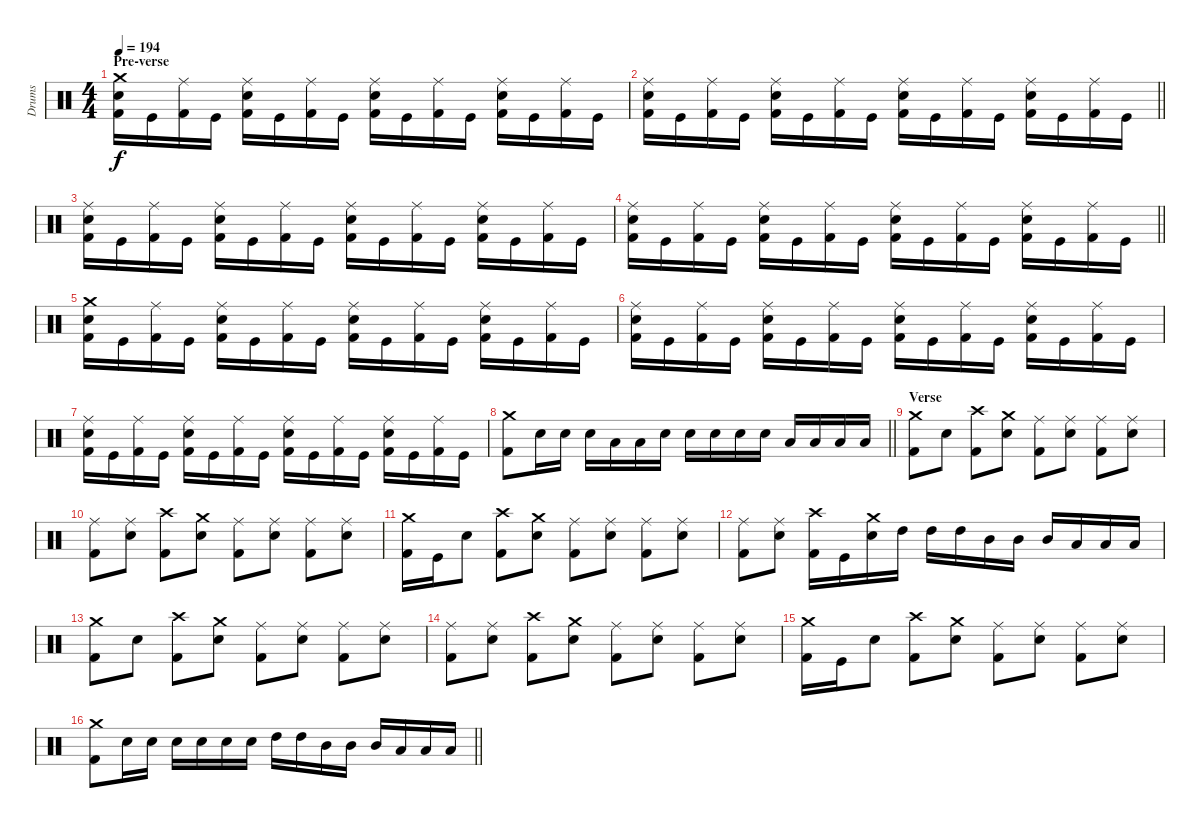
\track ("Drums" "Drums") {instrument percussion}
\staff {score}
\articulation defaults
\ts (4 4)
\section ("" "Pre-verse")
\tempo 194
\clef neutral
\ks c
("Crash medium (hit)" "Snare (hit) 2" "Kick (hit) 2").16{dy f} "Kick (hit)".16 ("Ride (middle)" "Kick (hit) 2").16 "Kick (hit)".16 ("Ride (middle)" "Snare (hit) 2" "Kick (hit) 2").16 "Kick (hit)".16 ("Ride (middle)" "Kick (hit) 2").16 "Kick (hit)".16 ("Ride (middle)" "Snare (hit) 2" "Kick (hit) 2").16 "Kick (hit)".16 ("Ride (middle)" "Kick (hit) 2").16 "Kick (hit)".16 ("Ride (middle)" "Snare (hit) 2" "Kick (hit) 2").16 "Kick (hit)".16 ("Ride (middle)" "Kick (hit) 2").16 "Kick (hit)".16 |
\barLineRight lightlight
("Ride (middle)" "Snare (hit) 2" "Kick (hit) 2").16 "Kick (hit)".16 ("Ride (middle)" "Kick (hit) 2").16 "Kick (hit)".16 ("Ride (middle)" "Snare (hit) 2" "Kick (hit) 2").16 "Kick (hit)".16 ("Ride (middle)" "Kick (hit) 2").16 "Kick (hit)".16 ("Ride (middle)" "Snare (hit) 2" "Kick (hit) 2").16 "Kick (hit)".16 ("Ride (middle)" "Kick (hit) 2").16 "Kick (hit)".16 ("Ride (middle)" "Snare (hit) 2" "Kick (hit) 2").16 "Kick (hit)".16 ("Ride (middle)" "Kick (hit) 2").16 "Kick (hit)".16 |
("Ride (middle)" "Snare (hit) 2" "Kick (hit) 2").16 "Kick (hit)".16 ("Ride (middle)" "Kick (hit) 2").16 "Kick (hit)".16 ("Ride (middle)" "Snare (hit) 2" "Kick (hit) 2").16 "Kick (hit)".16 ("Ride (middle)" "Kick (hit) 2").16 "Kick (hit)".16 ("Ride (middle)" "Snare (hit) 2" "Kick (hit) 2").16 "Kick (hit)".16 ("Ride (middle)" "Kick (hit) 2").16 "Kick (hit)".16 ("Ride (middle)" "Snare (hit) 2" "Kick (hit) 2").16 "Kick (hit)".16 ("Ride (middle)" "Kick (hit) 2").16 "Kick (hit)".16 |
\barLineRight lightlight
("Ride (middle)" "Snare (hit) 2" "Kick (hit) 2").16 "Kick (hit)".16 ("Ride (middle)" "Kick (hit) 2").16 "Kick (hit)".16 ("Ride (middle)" "Snare (hit) 2" "Kick (hit) 2").16 "Kick (hit)".16 ("Ride (middle)" "Kick (hit) 2").16 "Kick (hit)".16 ("Ride (middle)" "Snare (hit) 2" "Kick (hit) 2").16 "Kick (hit)".16 ("Ride (middle)" "Kick (hit) 2").16 "Kick (hit)".16 ("Ride (middle)" "Snare (hit) 2" "Kick (hit) 2").16 "Kick (hit)".16 ("Ride (middle)" "Kick (hit) 2").16 "Kick (hit)".16 |
("Crash medium (hit)" "Snare (hit) 2" "Kick (hit) 2").16 "Kick (hit)".16 ("Ride (middle)" "Kick (hit) 2").16 "Kick (hit)".16 ("Ride (middle)" "Snare (hit) 2" "Kick (hit) 2").16 "Kick (hit)".16 ("Ride (middle)" "Kick (hit) 2").16 "Kick (hit)".16 ("Ride (middle)" "Snare (hit) 2" "Kick (hit) 2").16 "Kick (hit)".16 ("Ride (middle)" "Kick (hit) 2").16 "Kick (hit)".16 ("Ride (middle)" "Snare (hit) 2" "Kick (hit) 2").16 "Kick (hit)".16 ("Ride (middle)" "Kick (hit) 2").16 "Kick (hit)".16 |
("Ride (middle)" "Snare (hit) 2" "Kick (hit) 2").16 "Kick (hit)".16 ("Ride (middle)" "Kick (hit) 2").16 "Kick (hit)".16 ("Ride (middle)" "Snare (hit) 2" "Kick (hit) 2").16 "Kick (hit)".16 ("Ride (middle)" "Kick (hit) 2").16 "Kick (hit)".16 ("Ride (middle)" "Snare (hit) 2" "Kick (hit) 2").16 "Kick (hit)".16 ("Ride (middle)" "Kick (hit) 2").16 "Kick (hit)".16 ("Ride (middle)" "Snare (hit) 2" "Kick (hit) 2").16 "Kick (hit)".16 ("Ride (middle)" "Kick (hit) 2").16 "Kick (hit)".16 |
("Ride (middle)" "Snare (hit) 2" "Kick (hit) 2").16 "Kick (hit)".16 ("Ride (middle)" "Kick (hit) 2").16 "Kick (hit)".16 ("Ride (middle)" "Snare (hit) 2" "Kick (hit) 2").16 "Kick (hit)".16 ("Ride (middle)" "Kick (hit) 2").16 "Kick (hit)".16 ("Ride (middle)" "Snare (hit) 2" "Kick (hit) 2").16 "Kick (hit)".16 ("Ride (middle)" "Kick (hit) 2").16 "Kick (hit)".16 ("Ride (middle)" "Snare (hit) 2" "Kick (hit) 2").16 "Kick (hit)".16 ("Ride (middle)" "Kick (hit) 2").16 "Kick (hit)".16 |
\barLineRight lightlight
("Crash medium (hit)" "Kick (hit) 2").8 "Snare (hit) 2".16 "Snare (hit) 2".16 "Snare (hit) 2".16 "Low Tom (hit)".16 "Low Tom (hit)".16 "Snare (hit) 2".16 "Snare (hit) 2".16 "Snare (hit) 2".16 "Snare (hit) 2".16 "Snare (hit) 2".16 "Low Tom (hit)".16 "Low Tom (hit)".16 "Low Tom (hit)".16 "Low Tom (hit)".16 |
\section ("" "Verse")
("Crash medium (hit)" "Kick (hit) 2").8 "Snare (hit) 2".8 ("Crash high (hit)" "Kick (hit) 2").8 ("Crash medium (hit)" "Snare (hit) 2").8 ("Ride (middle)" "Kick (hit) 2").8 ("Ride (middle)" "Snare (hit) 2").8 ("Ride (middle)" "Kick (hit) 2").8 ("Ride (middle)" "Snare (hit) 2").8 |
("Ride (middle)" "Kick (hit) 2").8 ("Ride (middle)" "Snare (hit) 2").8 ("Crash high (hit)" "Kick (hit) 2").8 ("Crash medium (hit)" "Snare (hit) 2").8 ("Ride (middle)" "Kick (hit) 2").8 ("Ride (middle)" "Snare (hit) 2").8 ("Ride (middle)" "Kick (hit) 2").8 ("Ride (middle)" "Snare (hit) 2").8 |
("Crash medium (hit)" "Kick (hit) 2").16 "Kick (hit)".16 "Snare (hit) 2".8 ("Crash high (hit)" "Kick (hit) 2").8 ("Crash medium (hit)" "Snare (hit) 2").8 ("Ride (middle)" "Kick (hit) 2").8 ("Ride (middle)" "Snare (hit) 2").8 ("Ride (middle)" "Kick (hit) 2").8 ("Ride (middle)" "Snare (hit) 2").8 |
("Ride (middle)" "Kick (hit) 2").8 ("Ride (middle)" "Snare (hit) 2").8 ("Crash high (hit)" "Kick (hit) 2").16 "Kick (hit)".16 ("Crash medium (hit)" "Snare (hit) 2").16 "High Tom (hit)".16 "High Tom (hit)".16 "High Tom (hit)".16 "Mid Tom (hit)".16 "Mid Tom (hit)".16 "Mid Tom (hit)".16 "Low Tom (hit)".16 "Low Tom (hit)".16 "Low Tom (hit)".16 |
("Crash medium (hit)" "Kick (hit) 2").8 "Snare (hit) 2".8 ("Crash high (hit)" "Kick (hit) 2").8 ("Crash medium (hit)" "Snare (hit) 2").8 ("Ride (middle)" "Kick (hit) 2").8 ("Ride (middle)" "Snare (hit) 2").8 ("Ride (middle)" "Kick (hit) 2").8 ("Ride (middle)" "Snare (hit) 2").8 |
("Ride (middle)" "Kick (hit) 2").8 ("Ride (middle)" "Snare (hit) 2").8 ("Crash high (hit)" "Kick (hit) 2").8 ("Crash medium (hit)" "Snare (hit) 2").8 ("Ride (middle)" "Kick (hit) 2").8 ("Ride (middle)" "Snare (hit) 2").8 ("Ride (middle)" "Kick (hit) 2").8 ("Ride (middle)" "Snare (hit) 2").8 |
("Crash medium (hit)" "Kick (hit) 2").16 "Kick (hit)".16 "Snare (hit) 2".8 ("Crash high (hit)" "Kick (hit) 2").8 ("Crash medium (hit)" "Snare (hit) 2").8 ("Ride (middle)" "Kick (hit) 2").8 ("Ride (middle)" "Snare (hit) 2").8 ("Ride (middle)" "Kick (hit) 2").8 ("Ride (middle)" "Snare (hit) 2").8 |
\barLineRight lightlight
("Crash medium (hit)" "Kick (hit) 2").8 "Snare (hit) 2".16 "Snare (hit) 2".16 "Snare (hit) 2".16 "Snare (hit) 2".16 "Snare (hit) 2".16 "Snare (hit) 2".16 "High Tom (hit)".16 "High Tom (hit)".16 "Mid Tom (hit)".16 "Mid Tom (hit)".16 "Mid Tom (hit)".16 "Low Tom (hit)".16 "Low Tom (hit)".16 "Low Tom (hit)".16
